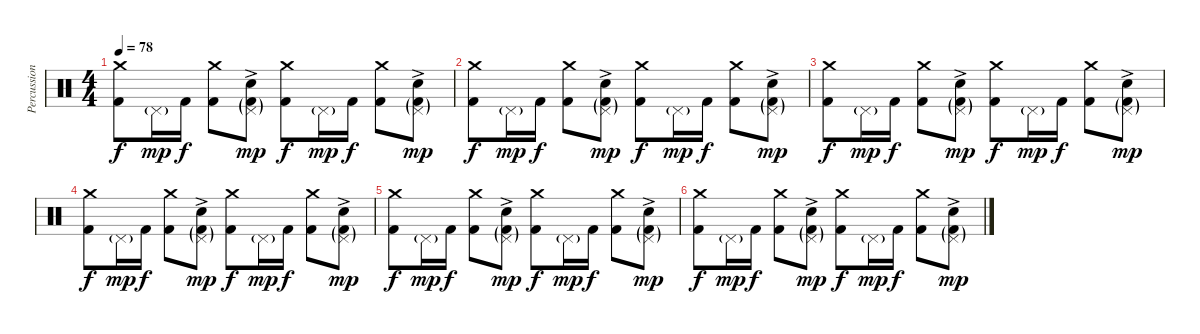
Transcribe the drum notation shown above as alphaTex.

\track ("Percussions" "Percussion") {instrument percussion}
\staff {score}
\articulation defaults
\ts (4 4)
\tempo 78
\clef neutral
\ks c
("Crash medium (hit)" "Kick (hit) 2").8{dy f} "Pedal Hi-Hat (hit)"{g}.16{dy mp} "Kick (hit) 2".16{dy f} ("Crash medium (hit)" "Kick (hit) 2").8 ("Pedal Hi-Hat (hit)"{g} "Electric Snare (hit)"{ac} "Kick (hit) 2"{g}).8{dy mp} ("Crash medium (hit)" "Kick (hit) 2").8{dy f} "Pedal Hi-Hat (hit)"{g}.16{dy mp} "Kick (hit) 2".16{dy f} ("Crash medium (hit)" "Kick (hit) 2").8 ("Pedal Hi-Hat (hit)"{g} "Electric Snare (hit)"{ac} "Kick (hit) 2"{g}).8{dy mp} |
("Crash medium (hit)" "Kick (hit) 2").8{dy f} "Pedal Hi-Hat (hit)"{g}.16{dy mp} "Kick (hit) 2".16{dy f} ("Crash medium (hit)" "Kick (hit) 2").8 ("Pedal Hi-Hat (hit)"{g} "Electric Snare (hit)"{ac} "Kick (hit) 2"{g}).8{dy mp} ("Crash medium (hit)" "Kick (hit) 2").8{dy f} "Pedal Hi-Hat (hit)"{g}.16{dy mp} "Kick (hit) 2".16{dy f} ("Crash medium (hit)" "Kick (hit) 2").8 ("Pedal Hi-Hat (hit)"{g} "Electric Snare (hit)"{ac} "Kick (hit) 2"{g}).8{dy mp} |
("Crash medium (hit)" "Kick (hit) 2").8{dy f} "Pedal Hi-Hat (hit)"{g}.16{dy mp} "Kick (hit) 2".16{dy f} ("Crash medium (hit)" "Kick (hit) 2").8 ("Pedal Hi-Hat (hit)"{g} "Electric Snare (hit)"{ac} "Kick (hit) 2"{g}).8{dy mp} ("Crash medium (hit)" "Kick (hit) 2").8{dy f} "Pedal Hi-Hat (hit)"{g}.16{dy mp} "Kick (hit) 2".16{dy f} ("Crash medium (hit)" "Kick (hit) 2").8 ("Pedal Hi-Hat (hit)"{g} "Electric Snare (hit)"{ac} "Kick (hit) 2"{g}).8{dy mp} |
("Crash medium (hit)" "Kick (hit) 2").8{dy f} "Pedal Hi-Hat (hit)"{g}.16{dy mp} "Kick (hit) 2".16{dy f} ("Crash medium (hit)" "Kick (hit) 2").8 ("Pedal Hi-Hat (hit)"{g} "Electric Snare (hit)"{ac} "Kick (hit) 2"{g}).8{dy mp} ("Crash medium (hit)" "Kick (hit) 2").8{dy f} "Pedal Hi-Hat (hit)"{g}.16{dy mp} "Kick (hit) 2".16{dy f} ("Crash medium (hit)" "Kick (hit) 2").8 ("Pedal Hi-Hat (hit)"{g} "Electric Snare (hit)"{ac} "Kick (hit) 2"{g}).8{dy mp} |
("Crash medium (hit)" "Kick (hit) 2").8{dy f} "Pedal Hi-Hat (hit)"{g}.16{dy mp} "Kick (hit) 2".16{dy f} ("Crash medium (hit)" "Kick (hit) 2").8 ("Pedal Hi-Hat (hit)"{g} "Electric Snare (hit)"{ac} "Kick (hit) 2"{g}).8{dy mp} ("Crash medium (hit)" "Kick (hit) 2").8{dy f} "Pedal Hi-Hat (hit)"{g}.16{dy mp} "Kick (hit) 2".16{dy f} ("Crash medium (hit)" "Kick (hit) 2").8 ("Pedal Hi-Hat (hit)"{g} "Electric Snare (hit)"{ac} "Kick (hit) 2"{g}).8{dy mp} |
("Crash medium (hit)" "Kick (hit) 2").8{dy f} "Pedal Hi-Hat (hit)"{g}.16{dy mp} "Kick (hit) 2".16{dy f} ("Crash medium (hit)" "Kick (hit) 2").8 ("Pedal Hi-Hat (hit)"{g} "Electric Snare (hit)"{ac} "Kick (hit) 2"{g}).8{dy mp} ("Crash medium (hit)" "Kick (hit) 2").8{dy f} "Pedal Hi-Hat (hit)"{g}.16{dy mp} "Kick (hit) 2".16{dy f} ("Crash medium (hit)" "Kick (hit) 2").8 ("Pedal Hi-Hat (hit)"{g} "Electric Snare (hit)"{ac} "Kick (hit) 2"{g}).8{dy mp}
